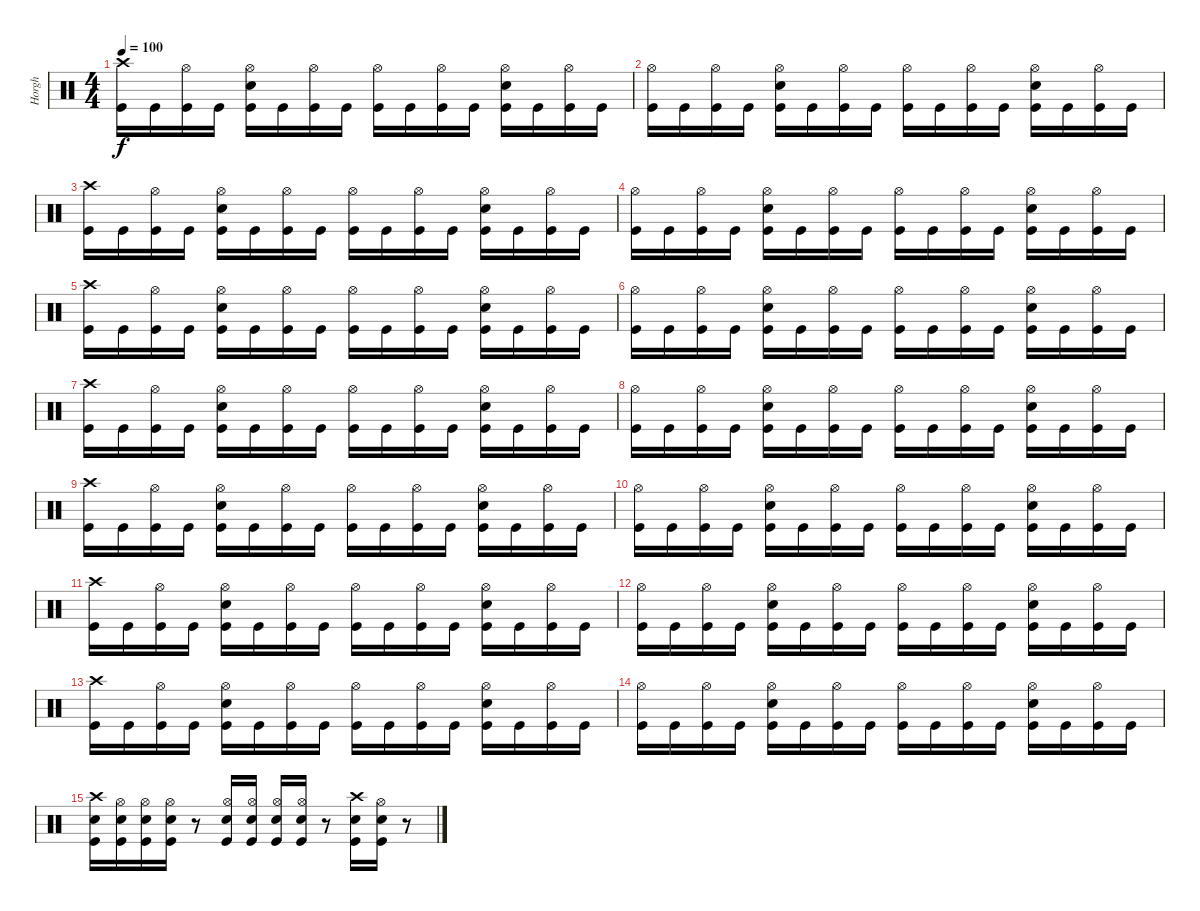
\track ("Horgh" "Horgh") {instrument percussion}
\staff {score}
\articulation defaults
\ts (4 4)
\tempo 100
\clef neutral
\ks c
("Crash high (hit)" "Kick (hit)").16{dy f} "Kick (hit)".16 ("Hi-Hat (open)" "Kick (hit)").16 "Kick (hit)".16 ("Hi-Hat (open)" "Electric Snare (hit)" "Kick (hit)").16 "Kick (hit)".16 ("Hi-Hat (open)" "Kick (hit)").16 "Kick (hit)".16 ("Hi-Hat (open)" "Kick (hit)").16 "Kick (hit)".16 ("Hi-Hat (open)" "Kick (hit)").16 "Kick (hit)".16 ("Hi-Hat (open)" "Electric Snare (hit)" "Kick (hit)").16 "Kick (hit)".16 ("Hi-Hat (open)" "Kick (hit)").16 "Kick (hit)".16 |
("Hi-Hat (open)" "Kick (hit)").16 "Kick (hit)".16 ("Hi-Hat (open)" "Kick (hit)").16 "Kick (hit)".16 ("Hi-Hat (open)" "Electric Snare (hit)" "Kick (hit)").16 "Kick (hit)".16 ("Hi-Hat (open)" "Kick (hit)").16 "Kick (hit)".16 ("Hi-Hat (open)" "Kick (hit)").16 "Kick (hit)".16 ("Hi-Hat (open)" "Kick (hit)").16 "Kick (hit)".16 ("Hi-Hat (open)" "Electric Snare (hit)" "Kick (hit)").16 "Kick (hit)".16 ("Hi-Hat (open)" "Kick (hit)").16 "Kick (hit)".16 |
("Crash high (hit)" "Kick (hit)").16 "Kick (hit)".16 ("Hi-Hat (open)" "Kick (hit)").16 "Kick (hit)".16 ("Hi-Hat (open)" "Electric Snare (hit)" "Kick (hit)").16 "Kick (hit)".16 ("Hi-Hat (open)" "Kick (hit)").16 "Kick (hit)".16 ("Hi-Hat (open)" "Kick (hit)").16 "Kick (hit)".16 ("Hi-Hat (open)" "Kick (hit)").16 "Kick (hit)".16 ("Hi-Hat (open)" "Electric Snare (hit)" "Kick (hit)").16 "Kick (hit)".16 ("Hi-Hat (open)" "Kick (hit)").16 "Kick (hit)".16 |
("Hi-Hat (open)" "Kick (hit)").16 "Kick (hit)".16 ("Hi-Hat (open)" "Kick (hit)").16 "Kick (hit)".16 ("Hi-Hat (open)" "Electric Snare (hit)" "Kick (hit)").16 "Kick (hit)".16 ("Hi-Hat (open)" "Kick (hit)").16 "Kick (hit)".16 ("Hi-Hat (open)" "Kick (hit)").16 "Kick (hit)".16 ("Hi-Hat (open)" "Kick (hit)").16 "Kick (hit)".16 ("Hi-Hat (open)" "Electric Snare (hit)" "Kick (hit)").16 "Kick (hit)".16 ("Hi-Hat (open)" "Kick (hit)").16 "Kick (hit)".16 |
("Crash high (hit)" "Kick (hit)").16 "Kick (hit)".16 ("Hi-Hat (open)" "Kick (hit)").16 "Kick (hit)".16 ("Hi-Hat (open)" "Electric Snare (hit)" "Kick (hit)").16 "Kick (hit)".16 ("Hi-Hat (open)" "Kick (hit)").16 "Kick (hit)".16 ("Hi-Hat (open)" "Kick (hit)").16 "Kick (hit)".16 ("Hi-Hat (open)" "Kick (hit)").16 "Kick (hit)".16 ("Hi-Hat (open)" "Electric Snare (hit)" "Kick (hit)").16 "Kick (hit)".16 ("Hi-Hat (open)" "Kick (hit)").16 "Kick (hit)".16 |
("Hi-Hat (open)" "Kick (hit)").16 "Kick (hit)".16 ("Hi-Hat (open)" "Kick (hit)").16 "Kick (hit)".16 ("Hi-Hat (open)" "Electric Snare (hit)" "Kick (hit)").16 "Kick (hit)".16 ("Hi-Hat (open)" "Kick (hit)").16 "Kick (hit)".16 ("Hi-Hat (open)" "Kick (hit)").16 "Kick (hit)".16 ("Hi-Hat (open)" "Kick (hit)").16 "Kick (hit)".16 ("Hi-Hat (open)" "Electric Snare (hit)" "Kick (hit)").16 "Kick (hit)".16 ("Hi-Hat (open)" "Kick (hit)").16 "Kick (hit)".16 |
("Crash high (hit)" "Kick (hit)").16 "Kick (hit)".16 ("Hi-Hat (open)" "Kick (hit)").16 "Kick (hit)".16 ("Hi-Hat (open)" "Electric Snare (hit)" "Kick (hit)").16 "Kick (hit)".16 ("Hi-Hat (open)" "Kick (hit)").16 "Kick (hit)".16 ("Hi-Hat (open)" "Kick (hit)").16 "Kick (hit)".16 ("Hi-Hat (open)" "Kick (hit)").16 "Kick (hit)".16 ("Hi-Hat (open)" "Electric Snare (hit)" "Kick (hit)").16 "Kick (hit)".16 ("Hi-Hat (open)" "Kick (hit)").16 "Kick (hit)".16 |
("Hi-Hat (open)" "Kick (hit)").16 "Kick (hit)".16 ("Hi-Hat (open)" "Kick (hit)").16 "Kick (hit)".16 ("Hi-Hat (open)" "Electric Snare (hit)" "Kick (hit)").16 "Kick (hit)".16 ("Hi-Hat (open)" "Kick (hit)").16 "Kick (hit)".16 ("Hi-Hat (open)" "Kick (hit)").16 "Kick (hit)".16 ("Hi-Hat (open)" "Kick (hit)").16 "Kick (hit)".16 ("Hi-Hat (open)" "Electric Snare (hit)" "Kick (hit)").16 "Kick (hit)".16 ("Hi-Hat (open)" "Kick (hit)").16 "Kick (hit)".16 |
("Crash high (hit)" "Kick (hit)").16 "Kick (hit)".16 ("Hi-Hat (open)" "Kick (hit)").16 "Kick (hit)".16 ("Hi-Hat (open)" "Electric Snare (hit)" "Kick (hit)").16 "Kick (hit)".16 ("Hi-Hat (open)" "Kick (hit)").16 "Kick (hit)".16 ("Hi-Hat (open)" "Kick (hit)").16 "Kick (hit)".16 ("Hi-Hat (open)" "Kick (hit)").16 "Kick (hit)".16 ("Hi-Hat (open)" "Electric Snare (hit)" "Kick (hit)").16 "Kick (hit)".16 ("Hi-Hat (open)" "Kick (hit)").16 "Kick (hit)".16 |
("Hi-Hat (open)" "Kick (hit)").16 "Kick (hit)".16 ("Hi-Hat (open)" "Kick (hit)").16 "Kick (hit)".16 ("Hi-Hat (open)" "Electric Snare (hit)" "Kick (hit)").16 "Kick (hit)".16 ("Hi-Hat (open)" "Kick (hit)").16 "Kick (hit)".16 ("Hi-Hat (open)" "Kick (hit)").16 "Kick (hit)".16 ("Hi-Hat (open)" "Kick (hit)").16 "Kick (hit)".16 ("Hi-Hat (open)" "Electric Snare (hit)" "Kick (hit)").16 "Kick (hit)".16 ("Hi-Hat (open)" "Kick (hit)").16 "Kick (hit)".16 |
("Crash high (hit)" "Kick (hit)").16 "Kick (hit)".16 ("Hi-Hat (open)" "Kick (hit)").16 "Kick (hit)".16 ("Hi-Hat (open)" "Electric Snare (hit)" "Kick (hit)").16 "Kick (hit)".16 ("Hi-Hat (open)" "Kick (hit)").16 "Kick (hit)".16 ("Hi-Hat (open)" "Kick (hit)").16 "Kick (hit)".16 ("Hi-Hat (open)" "Kick (hit)").16 "Kick (hit)".16 ("Hi-Hat (open)" "Electric Snare (hit)" "Kick (hit)").16 "Kick (hit)".16 ("Hi-Hat (open)" "Kick (hit)").16 "Kick (hit)".16 |
("Hi-Hat (open)" "Kick (hit)").16 "Kick (hit)".16 ("Hi-Hat (open)" "Kick (hit)").16 "Kick (hit)".16 ("Hi-Hat (open)" "Electric Snare (hit)" "Kick (hit)").16 "Kick (hit)".16 ("Hi-Hat (open)" "Kick (hit)").16 "Kick (hit)".16 ("Hi-Hat (open)" "Kick (hit)").16 "Kick (hit)".16 ("Hi-Hat (open)" "Kick (hit)").16 "Kick (hit)".16 ("Hi-Hat (open)" "Electric Snare (hit)" "Kick (hit)").16 "Kick (hit)".16 ("Hi-Hat (open)" "Kick (hit)").16 "Kick (hit)".16 |
("Crash high (hit)" "Kick (hit)").16 "Kick (hit)".16 ("Hi-Hat (open)" "Kick (hit)").16 "Kick (hit)".16 ("Hi-Hat (open)" "Electric Snare (hit)" "Kick (hit)").16 "Kick (hit)".16 ("Hi-Hat (open)" "Kick (hit)").16 "Kick (hit)".16 ("Hi-Hat (open)" "Kick (hit)").16 "Kick (hit)".16 ("Hi-Hat (open)" "Kick (hit)").16 "Kick (hit)".16 ("Hi-Hat (open)" "Electric Snare (hit)" "Kick (hit)").16 "Kick (hit)".16 ("Hi-Hat (open)" "Kick (hit)").16 "Kick (hit)".16 |
("Hi-Hat (open)" "Kick (hit)").16 "Kick (hit)".16 ("Hi-Hat (open)" "Kick (hit)").16 "Kick (hit)".16 ("Hi-Hat (open)" "Electric Snare (hit)" "Kick (hit)").16 "Kick (hit)".16 ("Hi-Hat (open)" "Kick (hit)").16 "Kick (hit)".16 ("Hi-Hat (open)" "Kick (hit)").16 "Kick (hit)".16 ("Hi-Hat (open)" "Kick (hit)").16 "Kick (hit)".16 ("Hi-Hat (open)" "Electric Snare (hit)" "Kick (hit)").16 "Kick (hit)".16 ("Hi-Hat (open)" "Kick (hit)").16 "Kick (hit)".16 |
("Crash high (hit)" "Electric Snare (hit)" "Kick (hit)").16 ("Hi-Hat (open)" "Electric Snare (hit)" "Kick (hit)").16 ("Hi-Hat (open)" "Electric Snare (hit)" "Kick (hit)").16 ("Hi-Hat (open)" "Electric Snare (hit)" "Kick (hit)").16 r.8 ("Hi-Hat (open)" "Electric Snare (hit)" "Kick (hit)").16 ("Hi-Hat (open)" "Electric Snare (hit)" "Kick (hit)").16 ("Hi-Hat (open)" "Electric Snare (hit)" "Kick (hit)").16 ("Hi-Hat (open)" "Electric Snare (hit)" "Kick (hit)").16 r.8 ("Crash high (hit)" "Electric Snare (hit)" "Kick (hit)").16 ("Hi-Hat (open)" "Electric Snare (hit)" "Kick (hit)").16 r.8
